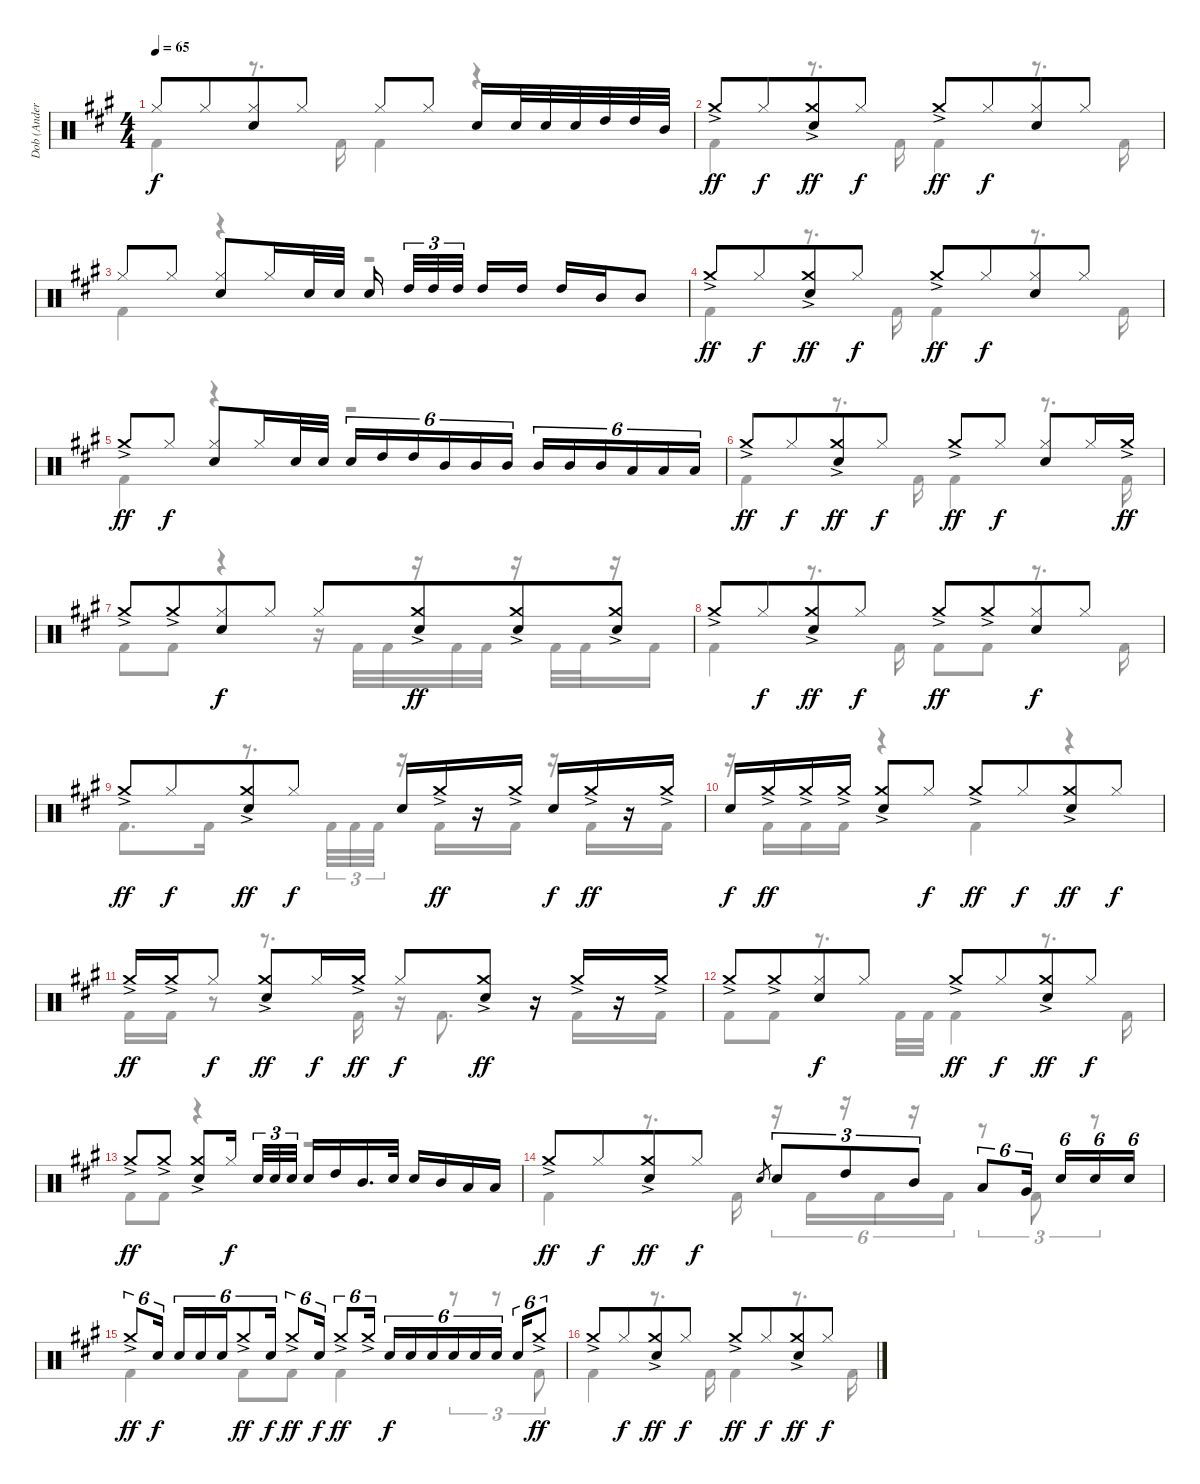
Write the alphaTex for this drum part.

\track ("Dob (Anders Johansson)" "Dob (Ander") {instrument percussion}
\staff {score}
\articulation defaults
\voice
\ts (4 4)
\tempo 65
\clef neutral
\ks a "Hi-Hat (closed)".8{dy f} "Hi-Hat (closed)".8{beam merge}
("Hi-Hat (closed)" "Electric Snare (hit)").8 "Hi-Hat (closed)".8 "Hi-Hat (closed)".8 "Hi-Hat (closed)".8 "Electric Snare (hit)".16 "Electric Snare (hit)".32 "Electric Snare (hit)".32 "Electric Snare (hit)".32 "High Tom (hit)".32 "High Tom (hit)".32 "Mid Tom (hit)".32 |
"Crash medium (hit)"{ac}.8{dy ff} "Hi-Hat (closed)".8{dy f beam merge} ("Crash medium (hit)"{ac} "Electric Snare (hit)").8{dy ff} "Hi-Hat (closed)".8{dy f} "Crash medium (hit)"{ac}.8{dy ff} "Hi-Hat (closed)".8{dy f beam merge} ("Hi-Hat (closed)" "Electric Snare (hit)").8 "Hi-Hat (closed)".8 |
"Hi-Hat (closed)".8 "Hi-Hat (closed)".8 ("Hi-Hat (closed)" "Electric Snare (hit)").8 "Hi-Hat (closed)".16 "Electric Snare (hit)".32 "Electric Snare (hit)".32 "Electric Snare (hit)".16{beam splitsecondary} "High Tom (hit)".32{tu (3 2) beam merge} "High Tom (hit)".32{tu (3 2) beam merge} "High Tom (hit)".32{tu (3 2) beam splitsecondary} "High Tom (hit)".16 "High Tom (hit)".16 "High Tom (hit)".16 "Mid Tom (hit)".16 "Mid Tom (hit)".8 |
"Crash medium (hit)"{ac}.8{dy ff} "Hi-Hat (closed)".8{dy f beam merge} ("Crash medium (hit)"{ac} "Electric Snare (hit)").8{dy ff} "Hi-Hat (closed)".8{dy f} "Crash medium (hit)"{ac}.8{dy ff} "Hi-Hat (closed)".8{dy f beam merge} ("Hi-Hat (closed)" "Electric Snare (hit)").8 "Hi-Hat (closed)".8 |
"Crash medium (hit)"{ac}.8{dy ff} "Hi-Hat (closed)".8{dy f} ("Hi-Hat (closed)" "Electric Snare (hit)").8 "Hi-Hat (closed)".16 "Electric Snare (hit)".32 "Electric Snare (hit)".32 "Electric Snare (hit)".16{tu (6 4)} "High Tom (hit)".16{tu (6 4)} "High Tom (hit)".16{tu (6 4)} "Mid Tom (hit)".16{tu (6 4)} "Mid Tom (hit)".16{tu (6 4)} "Mid Tom (hit)".16{tu (6 4)} "Mid Tom (hit)".16{tu (6 4)} "Mid Tom (hit)".16{tu (6 4)} "Mid Tom (hit)".16{tu (6 4)} "Low Tom (hit)".16{tu (6 4)} "Low Tom (hit)".16{tu (6 4)} "Low Tom (hit)".16{tu (6 4)} |
"Crash medium (hit)"{ac}.8{dy ff} "Hi-Hat (closed)".8{dy f beam merge} ("Crash medium (hit)"{ac} "Electric Snare (hit)").8{dy ff} "Hi-Hat (closed)".8{dy f} "Crash medium (hit)"{ac}.8{dy ff} "Hi-Hat (closed)".8{dy f} ("Hi-Hat (closed)" "Electric Snare (hit)").8 "Hi-Hat (closed)".16 "Crash medium (hit)"{ac}.16{dy ff} |
"Crash medium (hit)"{ac}.8 "Crash medium (hit)"{ac}.8{beam merge} ("Hi-Hat (closed)" "Electric Snare (hit)").8{dy f} "Hi-Hat (closed)".8 "Hi-Hat (closed)".8 ("Crash medium (hit)"{ac} "Electric Snare (hit)").8{dy ff beam merge} ("Crash medium (hit)"{ac} "Electric Snare (hit)").8 ("Crash medium (hit)"{ac} "Electric Snare (hit)").8 |
"Crash medium (hit)"{ac}.8 "Hi-Hat (closed)".8{dy f beam merge} ("Crash medium (hit)"{ac} "Electric Snare (hit)").8{dy ff} "Hi-Hat (closed)".8{dy f} "Crash medium (hit)"{ac}.8{dy ff} "Crash medium (hit)"{ac}.8{beam merge} ("Hi-Hat (closed)" "Electric Snare (hit)").8{dy f} "Hi-Hat (closed)".8 |
"Crash medium (hit)"{ac}.8{dy ff} "Hi-Hat (closed)".8{dy f beam merge} ("Crash medium (hit)"{ac} "Electric Snare (hit)").8{dy ff} "Hi-Hat (closed)".8{dy f} "Electric Snare (hit)".16 "Crash medium (hit)"{ac}.16{dy ff} r.16 "Crash medium (hit)"{ac}.16 "Electric Snare (hit)".16{dy f} "Crash medium (hit)"{ac}.16{dy ff} r.16 "Crash medium (hit)"{ac}.16 |
"Electric Snare (hit)".16{dy f} "Crash medium (hit)"{ac}.16{dy ff} "Crash medium (hit)"{ac}.16 "Crash medium (hit)"{ac}.16 ("Crash medium (hit)"{ac} "Electric Snare (hit)").8 "Hi-Hat (closed)".8{dy f} "Crash medium (hit)"{ac}.8{dy ff} "Hi-Hat (closed)".8{dy f beam merge} ("Crash medium (hit)"{ac} "Electric Snare (hit)").8{dy ff} "Hi-Hat (closed)".8{dy f} |
"Crash medium (hit)"{ac}.16{dy ff} "Crash medium (hit)"{ac}.16 "Hi-Hat (closed)".8{dy f} ("Crash medium (hit)"{ac} "Electric Snare (hit)").8{dy ff} "Hi-Hat (closed)".16{dy f} "Crash medium (hit)"{ac}.16{dy ff} "Hi-Hat (closed)".8{dy f} ("Crash medium (hit)"{ac} "Electric Snare (hit)").8{dy ff} r.16 "Crash medium (hit)"{ac}.16 r.16 "Crash medium (hit)"{ac}.16 |
"Crash medium (hit)"{ac}.8 "Crash medium (hit)"{ac}.8{beam merge} ("Hi-Hat (closed)" "Electric Snare (hit)").8{dy f} "Hi-Hat (closed)".8 "Crash medium (hit)"{ac}.8{dy ff} "Hi-Hat (closed)".8{dy f beam merge} ("Crash medium (hit)"{ac} "Electric Snare (hit)").8{dy ff} "Hi-Hat (closed)".8{dy f} |
"Crash medium (hit)"{ac}.8{dy ff} "Crash medium (hit)"{ac}.8 ("Crash medium (hit)"{ac} "Electric Snare (hit)").8 "Hi-Hat (closed)".16{dy f beam splitsecondary} "Electric Snare (hit)".32{tu (3 2)} "Electric Snare (hit)".32{tu (3 2)} "Electric Snare (hit)".32{tu (3 2)} "Electric Snare (hit)".16 "High Tom (hit)".16 "Mid Tom (hit)".16{d} "Electric Snare (hit)".32 "Electric Snare (hit)".16 "Mid Tom (hit)".16 "Low Tom (hit)".16 "Low Tom (hit)".16 |
"Crash medium (hit)"{ac}.8{dy ff} "Hi-Hat (closed)".8{dy f beam merge} ("Crash medium (hit)"{ac} "Electric Snare (hit)").8{dy ff} "Hi-Hat (closed)".8{dy f} "Electric Snare (hit)".8{gr} "Electric Snare (hit)".8{tu (3 2)} "High Tom (hit)".8{tu (3 2)} "Mid Tom (hit)".8{tu (3 2)} "Low Tom (hit)".8{tu (6 4)} "Very Low Tom (hit)".16{tu (6 4)} "Electric Snare (hit)".16{tu (6 4)} "Electric Snare (hit)".16{tu (6 4)} "Electric Snare (hit)".16{tu (6 4)} |
"Crash medium (hit)"{ac}.8{tu (6 4) dy ff} "Electric Snare (hit)".16{tu (6 4) dy f} "Electric Snare (hit)".16{tu (6 4)} "Electric Snare (hit)".16{tu (6 4)} "Electric Snare (hit)".16{tu (6 4)} "Crash medium (hit)"{ac}.8{tu (6 4) dy ff} "Electric Snare (hit)".16{tu (6 4) dy f} "Crash medium (hit)"{ac}.8{tu (6 4) dy ff} "Electric Snare (hit)".16{tu (6 4) dy f} "Crash medium (hit)"{ac}.8{tu (6 4) dy ff} "Crash medium (hit)"{ac}.16{tu (6 4)} "Electric Snare (hit)".16{tu (6 4) dy f} "Electric Snare (hit)".16{tu (6 4)} "Electric Snare (hit)".16{tu (6 4)} "Electric Snare (hit)".16{tu (6 4)} "Electric Snare (hit)".16{tu (6 4)} "Electric Snare (hit)".16{tu (6 4)} "Electric Snare (hit)".16{tu (6 4)} "Crash medium (hit)"{ac}.8{tu (6 4) dy ff} |
"Crash medium (hit)"{ac}.8 "Hi-Hat (closed)".8{dy f beam merge} ("Crash medium (hit)"{ac} "Electric Snare (hit)").8{dy ff} "Hi-Hat (closed)".8{dy f} "Crash medium (hit)"{ac}.8{dy ff} "Hi-Hat (closed)".8{dy f beam merge} ("Crash medium (hit)"{ac} "Electric Snare (hit)").8{dy ff} "Hi-Hat (closed)".8{dy f}
\voice
\clef neutral
\ottava regular
\simile none
\ks a "Kick (hit) 2".4{dy f}
r.8{d} "Kick (hit) 2".16 "Kick (hit) 2".4 r.4 |
"Kick (hit) 2".4 r.8{d} "Kick (hit) 2".16 "Kick (hit) 2".4 r.8{d} "Kick (hit) 2".16 |
"Kick (hit) 2".4 r.4 r.2 |
"Kick (hit) 2".4 r.8{d} "Kick (hit) 2".16 "Kick (hit) 2".4 r.8{d} "Kick (hit) 2".16 |
"Kick (hit) 2".4 r.4 r.2 |
"Kick (hit) 2".4 r.8{d} "Kick (hit) 2".16 "Kick (hit) 2".4 r.8{d} "Kick (hit) 2".16 |
"Kick (hit) 2".8 "Kick (hit) 2".8 r.4 r.16 "Kick (hit) 2".32 "Kick (hit) 2".32 r.16 "Kick (hit) 2".32 "Kick (hit) 2".32 r.16 "Kick (hit) 2".32 "Kick (hit) 2".32 r.16 "Kick (hit) 2".16 |
"Kick (hit) 2".4 r.8{d} "Kick (hit) 2".16 "Kick (hit) 2".8 "Kick (hit) 2".8 r.8{d} "Kick (hit) 2".16 |
"Kick (hit) 2".8{d} "Kick (hit) 2".16 r.8{d} "Kick (hit) 2".32{tu (3 2)} "Kick (hit) 2".32{tu (3 2)} "Kick (hit) 2".32{tu (3 2)} r.16 "Kick (hit) 2".16 r.16 "Kick (hit) 2".16 r.16 "Kick (hit) 2".16 r.16 "Kick (hit) 2".16 |
r.16 "Kick (hit) 2".16 "Kick (hit) 2".16 "Kick (hit) 2".16 r.4 "Kick (hit) 2".4 r.4 |
"Kick (hit) 2".16 "Kick (hit) 2".16 r.8 r.8{d} "Kick (hit) 2".16 r.16 "Kick (hit) 2".8{d} r.16 "Kick (hit) 2".16 r.16 "Kick (hit) 2".16 |
"Kick (hit) 2".8 "Kick (hit) 2".8 r.8{d} "Kick (hit) 2".32 "Kick (hit) 2".32 "Kick (hit) 2".4 r.8{d} "Kick (hit) 2".16 |
"Kick (hit) 2".8 "Kick (hit) 2".8 r.4 r.2 |
"Kick (hit) 2".4 r.8{d} "Kick (hit) 2".16 r.16{tu (6 4)} "Kick (hit) 2".16{tu (6 4)} r.16{tu (6 4)} "Kick (hit) 2".16{tu (6 4)} r.16{tu (6 4)} "Kick (hit) 2".16{tu (6 4)} r.8{tu (3 2)} "Kick (hit) 2".8{tu (3 2)} r.8{tu (3 2)} |
"Kick (hit) 2".4 "Kick (hit) 2".8 "Kick (hit) 2".8 "Kick (hit) 2".4 r.8{tu (3 2)} r.8{tu (3 2)} "Kick (hit) 2".8{tu (3 2)} |
"Kick (hit) 2".4 r.8{d} "Kick (hit) 2".16 "Kick (hit) 2".4 r.8{d} "Kick (hit) 2".16
